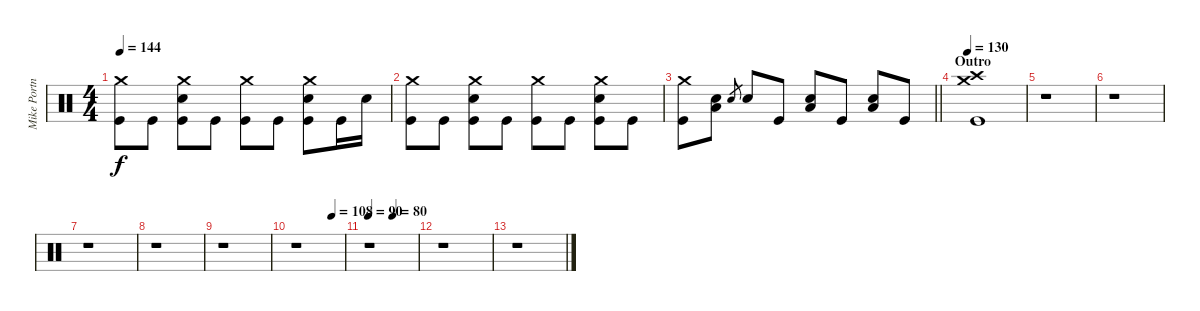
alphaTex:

\track ("Mike Portnoy" "Mike Portn") {instrument percussion}
\staff {score}
\articulation defaults
\ts (4 4)
\tempo 144
\clef neutral
\ks c
("Crash medium (hit)" "Kick (hit)").8{dy f} "Kick (hit)".8 ("Crash medium (hit)" "Electric Snare (hit)" "Kick (hit)").8 "Kick (hit)".8 ("Crash medium (hit)" "Kick (hit)").8 "Kick (hit)".8 ("Crash medium (hit)" "Electric Snare (hit)" "Kick (hit)").8 "Kick (hit)".16 "Electric Snare (hit)".16 |
("Crash medium (hit)" "Kick (hit)").8 "Kick (hit)".8 ("Crash medium (hit)" "Electric Snare (hit)" "Kick (hit)").8 "Kick (hit)".8 ("Crash medium (hit)" "Kick (hit)").8 "Kick (hit)".8 ("Crash medium (hit)" "Electric Snare (hit)" "Kick (hit)").8 "Kick (hit)".8 |
\barLineRight lightlight
("Crash medium (hit)" "Kick (hit)").8 ("Low Tom (hit)" "Electric Snare (hit)").8 "Electric Snare (hit)".8{gr} "Electric Snare (hit)".8 "Kick (hit)".8 ("Low Tom (hit)" "Electric Snare (hit)").8 "Kick (hit)".8 ("Low Tom (hit)" "Electric Snare (hit)").8 "Kick (hit)".8 |
\section ("" "Outro")
\tempo 130
("Crash high (hit)" "Crash medium (hit)" "Kick (hit)").1 |
r.1 |
r.1 |
r.1 |
r.1 |
r.1 |
\tempo (108 0.75)
r.1 |
\tempo 90
\tempo (80 0.5)
r.1 |
r.1 |
r.1
